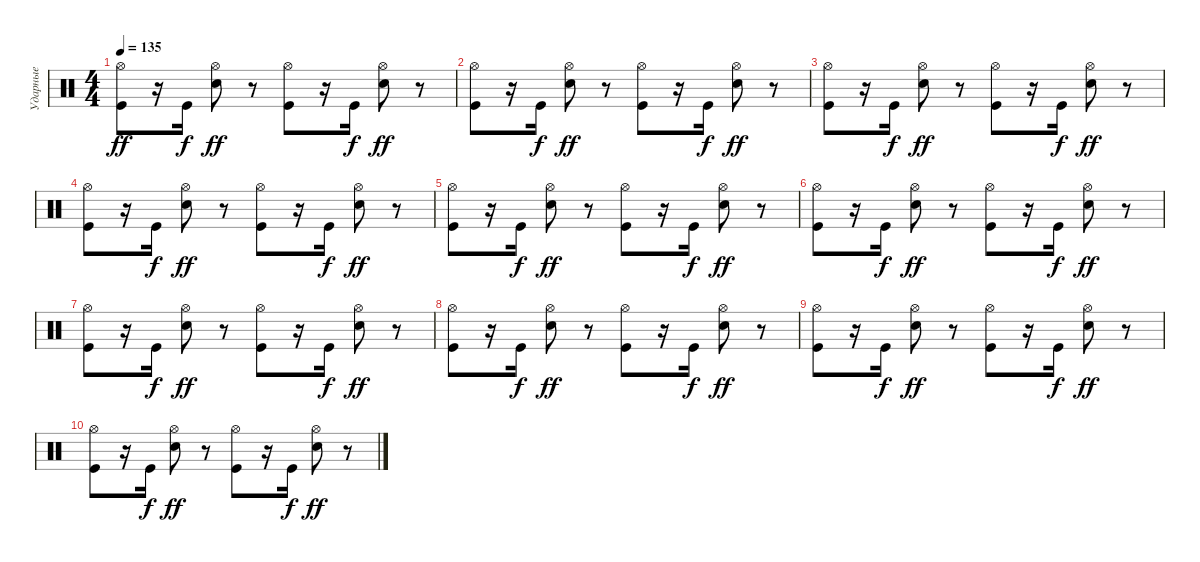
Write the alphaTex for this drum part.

\track ("Ударные" "Ударные") {instrument percussion}
\staff {score}
\articulation defaults
\ts (4 4)
\tempo 135
\clef neutral
\ks c
("Kick (hit)" "Hi-Hat (open)").8{dy ff} r.16 "Kick (hit)".16{dy f} ("Electric Snare (hit)" "Hi-Hat (open)").8{dy ff} r.8 ("Kick (hit)" "Hi-Hat (open)").8 r.16 "Kick (hit)".16{dy f} ("Electric Snare (hit)" "Hi-Hat (open)").8{dy ff} r.8 |
("Kick (hit)" "Hi-Hat (open)").8 r.16 "Kick (hit)".16{dy f} ("Electric Snare (hit)" "Hi-Hat (open)").8{dy ff} r.8 ("Kick (hit)" "Hi-Hat (open)").8 r.16 "Kick (hit)".16{dy f} ("Electric Snare (hit)" "Hi-Hat (open)").8{dy ff} r.8 |
("Kick (hit)" "Hi-Hat (open)").8 r.16 "Kick (hit)".16{dy f} ("Electric Snare (hit)" "Hi-Hat (open)").8{dy ff} r.8 ("Kick (hit)" "Hi-Hat (open)").8 r.16 "Kick (hit)".16{dy f} ("Electric Snare (hit)" "Hi-Hat (open)").8{dy ff} r.8 |
("Kick (hit)" "Hi-Hat (open)").8 r.16 "Kick (hit)".16{dy f} ("Electric Snare (hit)" "Hi-Hat (open)").8{dy ff} r.8 ("Kick (hit)" "Hi-Hat (open)").8 r.16 "Kick (hit)".16{dy f} ("Electric Snare (hit)" "Hi-Hat (open)").8{dy ff} r.8 |
("Kick (hit)" "Hi-Hat (open)").8 r.16 "Kick (hit)".16{dy f} ("Electric Snare (hit)" "Hi-Hat (open)").8{dy ff} r.8 ("Kick (hit)" "Hi-Hat (open)").8 r.16 "Kick (hit)".16{dy f} ("Electric Snare (hit)" "Hi-Hat (open)").8{dy ff} r.8 |
("Kick (hit)" "Hi-Hat (open)").8 r.16 "Kick (hit)".16{dy f} ("Electric Snare (hit)" "Hi-Hat (open)").8{dy ff} r.8 ("Kick (hit)" "Hi-Hat (open)").8 r.16 "Kick (hit)".16{dy f} ("Electric Snare (hit)" "Hi-Hat (open)").8{dy ff} r.8 |
("Kick (hit)" "Hi-Hat (open)").8 r.16 "Kick (hit)".16{dy f} ("Electric Snare (hit)" "Hi-Hat (open)").8{dy ff} r.8 ("Kick (hit)" "Hi-Hat (open)").8 r.16 "Kick (hit)".16{dy f} ("Electric Snare (hit)" "Hi-Hat (open)").8{dy ff} r.8 |
("Kick (hit)" "Hi-Hat (open)").8 r.16 "Kick (hit)".16{dy f} ("Electric Snare (hit)" "Hi-Hat (open)").8{dy ff} r.8 ("Kick (hit)" "Hi-Hat (open)").8 r.16 "Kick (hit)".16{dy f} ("Electric Snare (hit)" "Hi-Hat (open)").8{dy ff} r.8 |
("Kick (hit)" "Hi-Hat (open)").8 r.16 "Kick (hit)".16{dy f} ("Electric Snare (hit)" "Hi-Hat (open)").8{dy ff} r.8 ("Kick (hit)" "Hi-Hat (open)").8 r.16 "Kick (hit)".16{dy f} ("Electric Snare (hit)" "Hi-Hat (open)").8{dy ff} r.8 |
("Kick (hit)" "Hi-Hat (open)").8 r.16 "Kick (hit)".16{dy f} ("Electric Snare (hit)" "Hi-Hat (open)").8{dy ff} r.8 ("Kick (hit)" "Hi-Hat (open)").8 r.16 "Kick (hit)".16{dy f} ("Electric Snare (hit)" "Hi-Hat (open)").8{dy ff} r.8
